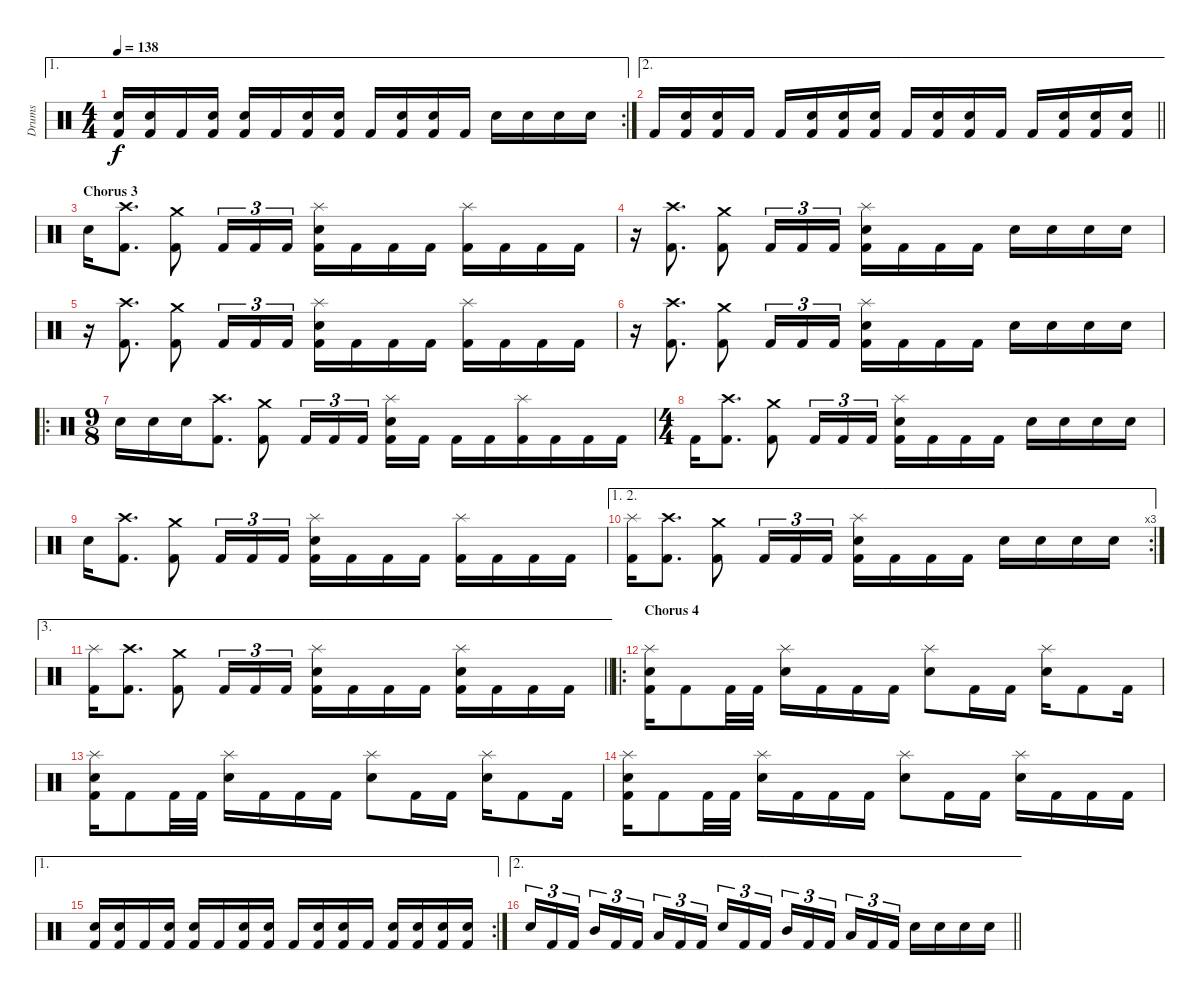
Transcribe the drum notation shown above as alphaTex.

\track ("Drums" "Drums") {instrument percussion}
\staff {score}
\articulation defaults
\ae 1
\rc 2
\ts (4 4)
\tempo 138
\clef neutral
\ks c
("Snare (hit) 2" "Kick (hit) 2").16{dy f} ("Snare (hit) 2" "Kick (hit) 2").16 "Kick (hit) 2".16 ("Snare (hit) 2" "Kick (hit) 2").16 ("Snare (hit) 2" "Kick (hit) 2").16 "Kick (hit) 2".16 ("Snare (hit) 2" "Kick (hit) 2").16 ("Snare (hit) 2" "Kick (hit) 2").16 "Kick (hit) 2".16 ("Snare (hit) 2" "Kick (hit) 2").16 ("Snare (hit) 2" "Kick (hit) 2").16 "Kick (hit) 2".16 "Snare (hit) 2".16 "Snare (hit) 2".16 "Snare (hit) 2".16 "Snare (hit) 2".16 |
\ae 2
\barLineRight lightlight "Kick (hit) 2".16
("Snare (hit) 2" "Kick (hit) 2").16 ("Snare (hit) 2" "Kick (hit) 2").16 "Kick (hit) 2".16 "Kick (hit) 2".16 ("Snare (hit) 2" "Kick (hit) 2").16 ("Snare (hit) 2" "Kick (hit) 2").16 ("Snare (hit) 2" "Kick (hit) 2").16 "Kick (hit) 2".16 ("Snare (hit) 2" "Kick (hit) 2").16 ("Snare (hit) 2" "Kick (hit) 2").16 "Kick (hit) 2".16 "Kick (hit) 2".16 ("Snare (hit) 2" "Kick (hit) 2").16 ("Snare (hit) 2" "Kick (hit) 2").16 ("Snare (hit) 2" "Kick (hit) 2").16 |
\section ("" "Chorus 3")
"Snare (hit) 2".16 ("Crash high (hit)" "Kick (hit) 2").8{d} ("Crash medium (hit)" "Kick (hit) 2").8 "Kick (hit) 2".16{tu (3 2)} "Kick (hit) 2".16{tu (3 2)} "Kick (hit) 2".16{tu (3 2)} ("Splash (hit)" "Snare (hit) 2" "Kick (hit) 2").16 "Kick (hit) 2".16 "Kick (hit) 2".16 "Kick (hit) 2".16 ("Splash (hit)" "Kick (hit) 2").16 "Kick (hit) 2".16 "Kick (hit) 2".16 "Kick (hit) 2".16 |
r.16 ("Crash high (hit)" "Kick (hit) 2").8{d} ("Crash medium (hit)" "Kick (hit) 2").8 "Kick (hit) 2".16{tu (3 2)} "Kick (hit) 2".16{tu (3 2)} "Kick (hit) 2".16{tu (3 2)} ("Splash (hit)" "Snare (hit) 2" "Kick (hit) 2").16 "Kick (hit) 2".16 "Kick (hit) 2".16 "Kick (hit) 2".16 "Snare (hit) 2".16 "Snare (hit) 2".16 "Snare (hit) 2".16 "Snare (hit) 2".16 |
r.16 ("Crash high (hit)" "Kick (hit) 2").8{d} ("Crash medium (hit)" "Kick (hit) 2").8 "Kick (hit) 2".16{tu (3 2)} "Kick (hit) 2".16{tu (3 2)} "Kick (hit) 2".16{tu (3 2)} ("Splash (hit)" "Snare (hit) 2" "Kick (hit) 2").16 "Kick (hit) 2".16 "Kick (hit) 2".16 "Kick (hit) 2".16 ("Splash (hit)" "Kick (hit) 2").16 "Kick (hit) 2".16 "Kick (hit) 2".16 "Kick (hit) 2".16 |
r.16 ("Crash high (hit)" "Kick (hit) 2").8{d} ("Crash medium (hit)" "Kick (hit) 2").8 "Kick (hit) 2".16{tu (3 2)} "Kick (hit) 2".16{tu (3 2)} "Kick (hit) 2".16{tu (3 2)} ("Splash (hit)" "Snare (hit) 2" "Kick (hit) 2").16 "Kick (hit) 2".16 "Kick (hit) 2".16 "Kick (hit) 2".16 "Snare (hit) 2".16 "Snare (hit) 2".16 "Snare (hit) 2".16 "Snare (hit) 2".16 |
\ro
\ts (9 8)
"Snare (hit) 2".16 "Snare (hit) 2".16 "Snare (hit) 2".16 ("Crash high (hit)" "Kick (hit) 2").8{d} ("Crash medium (hit)" "Kick (hit) 2").8 "Kick (hit) 2".16{tu (3 2)} "Kick (hit) 2".16{tu (3 2)} "Kick (hit) 2".16{tu (3 2) beam splitsecondary} ("Splash (hit)" "Snare (hit) 2" "Kick (hit) 2").16 "Kick (hit) 2".16 "Kick (hit) 2".16 "Kick (hit) 2".16 ("Splash (hit)" "Kick (hit) 2").16 "Kick (hit) 2".16 "Kick (hit) 2".16 "Kick (hit) 2".16 |
\ts (4 4)
"Kick (hit) 2".16 ("Crash high (hit)" "Kick (hit) 2").8{d} ("Crash medium (hit)" "Kick (hit) 2").8 "Kick (hit) 2".16{tu (3 2)} "Kick (hit) 2".16{tu (3 2)} "Kick (hit) 2".16{tu (3 2)} ("Splash (hit)" "Snare (hit) 2" "Kick (hit) 2").16 "Kick (hit) 2".16 "Kick (hit) 2".16 "Kick (hit) 2".16 "Snare (hit) 2".16 "Snare (hit) 2".16 "Snare (hit) 2".16 "Snare (hit) 2".16 |
"Snare (hit) 2".16 ("Crash high (hit)" "Kick (hit) 2").8{d} ("Crash medium (hit)" "Kick (hit) 2").8 "Kick (hit) 2".16{tu (3 2)} "Kick (hit) 2".16{tu (3 2)} "Kick (hit) 2".16{tu (3 2)} ("Splash (hit)" "Snare (hit) 2" "Kick (hit) 2").16 "Kick (hit) 2".16 "Kick (hit) 2".16 "Kick (hit) 2".16 ("Splash (hit)" "Kick (hit) 2").16 "Kick (hit) 2".16 "Kick (hit) 2".16 "Kick (hit) 2".16 |
\ae (1 2)
\rc 3
("Splash (hit)" "Kick (hit) 2").16 ("Crash high (hit)" "Kick (hit) 2").8{d} ("Crash medium (hit)" "Kick (hit) 2").8 "Kick (hit) 2".16{tu (3 2)} "Kick (hit) 2".16{tu (3 2)} "Kick (hit) 2".16{tu (3 2)} ("Splash (hit)" "Snare (hit) 2" "Kick (hit) 2").16 "Kick (hit) 2".16 "Kick (hit) 2".16 "Kick (hit) 2".16 "Snare (hit) 2".16 "Snare (hit) 2".16 "Snare (hit) 2".16 "Snare (hit) 2".16 |
\ae 3
\barLineRight lightlight
("Splash (hit)" "Kick (hit) 2").16 ("Crash high (hit)" "Kick (hit) 2").8{d} ("Crash medium (hit)" "Kick (hit) 2").8 "Kick (hit) 2".16{tu (3 2)} "Kick (hit) 2".16{tu (3 2)} "Kick (hit) 2".16{tu (3 2)} ("Splash (hit)" "Snare (hit) 2" "Kick (hit) 2").16 "Kick (hit) 2".16 "Kick (hit) 2".16 "Kick (hit) 2".16 ("Splash (hit)" "Snare (hit) 2" "Kick (hit) 2").16 "Kick (hit) 2".16 "Kick (hit) 2".16 "Kick (hit) 2".16 |
\ro
\section ("" "Chorus 4")
("Splash (hit)" "Snare (hit) 2" "Kick (hit) 2").16 "Kick (hit) 2".8 "Kick (hit) 2".32 "Kick (hit) 2".32 ("Splash (hit)" "Snare (hit) 2").16 "Kick (hit) 2".16 "Kick (hit) 2".16 "Kick (hit) 2".16 ("Splash (hit)" "Snare (hit) 2").8 "Kick (hit) 2".16 "Kick (hit) 2".16 ("Splash (hit)" "Snare (hit) 2").16 "Kick (hit) 2".8 "Kick (hit) 2".16 |
("Splash (hit)" "Snare (hit) 2" "Kick (hit) 2").16 "Kick (hit) 2".8 "Kick (hit) 2".32 "Kick (hit) 2".32 ("Splash (hit)" "Snare (hit) 2").16 "Kick (hit) 2".16 "Kick (hit) 2".16 "Kick (hit) 2".16 ("Splash (hit)" "Snare (hit) 2").8 "Kick (hit) 2".16 "Kick (hit) 2".16 ("Splash (hit)" "Snare (hit) 2").16 "Kick (hit) 2".8 "Kick (hit) 2".16 |
("Splash (hit)" "Snare (hit) 2" "Kick (hit) 2").16 "Kick (hit) 2".8 "Kick (hit) 2".32 "Kick (hit) 2".32 ("Splash (hit)" "Snare (hit) 2").16 "Kick (hit) 2".16 "Kick (hit) 2".16 "Kick (hit) 2".16 ("Splash (hit)" "Snare (hit) 2").8 "Kick (hit) 2".16 "Kick (hit) 2".16 ("Splash (hit)" "Snare (hit) 2").16 "Kick (hit) 2".16 "Kick (hit) 2".16 "Kick (hit) 2".16 |
\ae 1
\rc 2
("Snare (hit) 2" "Kick (hit) 2").16 ("Snare (hit) 2" "Kick (hit) 2").16 "Kick (hit) 2".16 ("Snare (hit) 2" "Kick (hit) 2").16 ("Snare (hit) 2" "Kick (hit) 2").16 "Kick (hit) 2".16 ("Snare (hit) 2" "Kick (hit) 2").16 ("Snare (hit) 2" "Kick (hit) 2").16 "Kick (hit) 2".16 ("Snare (hit) 2" "Kick (hit) 2").16 ("Snare (hit) 2" "Kick (hit) 2").16 "Kick (hit) 2".16 ("Snare (hit) 2" "Kick (hit) 2").16 ("Snare (hit) 2" "Kick (hit) 2").16 ("Snare (hit) 2" "Kick (hit) 2").16 ("Snare (hit) 2" "Kick (hit) 2").16 |
\ae 2
\barLineRight lightlight "Snare (hit) 2".16{tu (3 2)} "Kick (hit) 2".16{tu (3 2)} "Kick (hit) 2".16{tu (3 2) beam splitsecondary} "Mid Tom (hit)".16{tu (3 2)} "Kick (hit) 2".16{tu (3 2)} "Kick (hit) 2".16{tu (3 2)} "Low Tom (hit)".16{tu (3 2)} "Kick (hit) 2".16{tu (3 2)} "Kick (hit) 2".16{tu (3 2) beam splitsecondary} "Snare (hit) 2".16{tu (3 2)} "Kick (hit) 2".16{tu (3 2)} "Kick (hit) 2".16{tu (3 2)} "Mid Tom (hit)".16{tu (3 2)} "Kick (hit) 2".16{tu (3 2)} "Kick (hit) 2".16{tu (3 2) beam splitsecondary} "Low Tom (hit)".16{tu (3 2)} "Kick (hit) 2".16{tu (3 2)} "Kick (hit) 2".16{tu (3 2)} "Snare (hit) 2".16 "Snare (hit) 2".16 "Snare (hit) 2".16 "Snare (hit) 2".16
